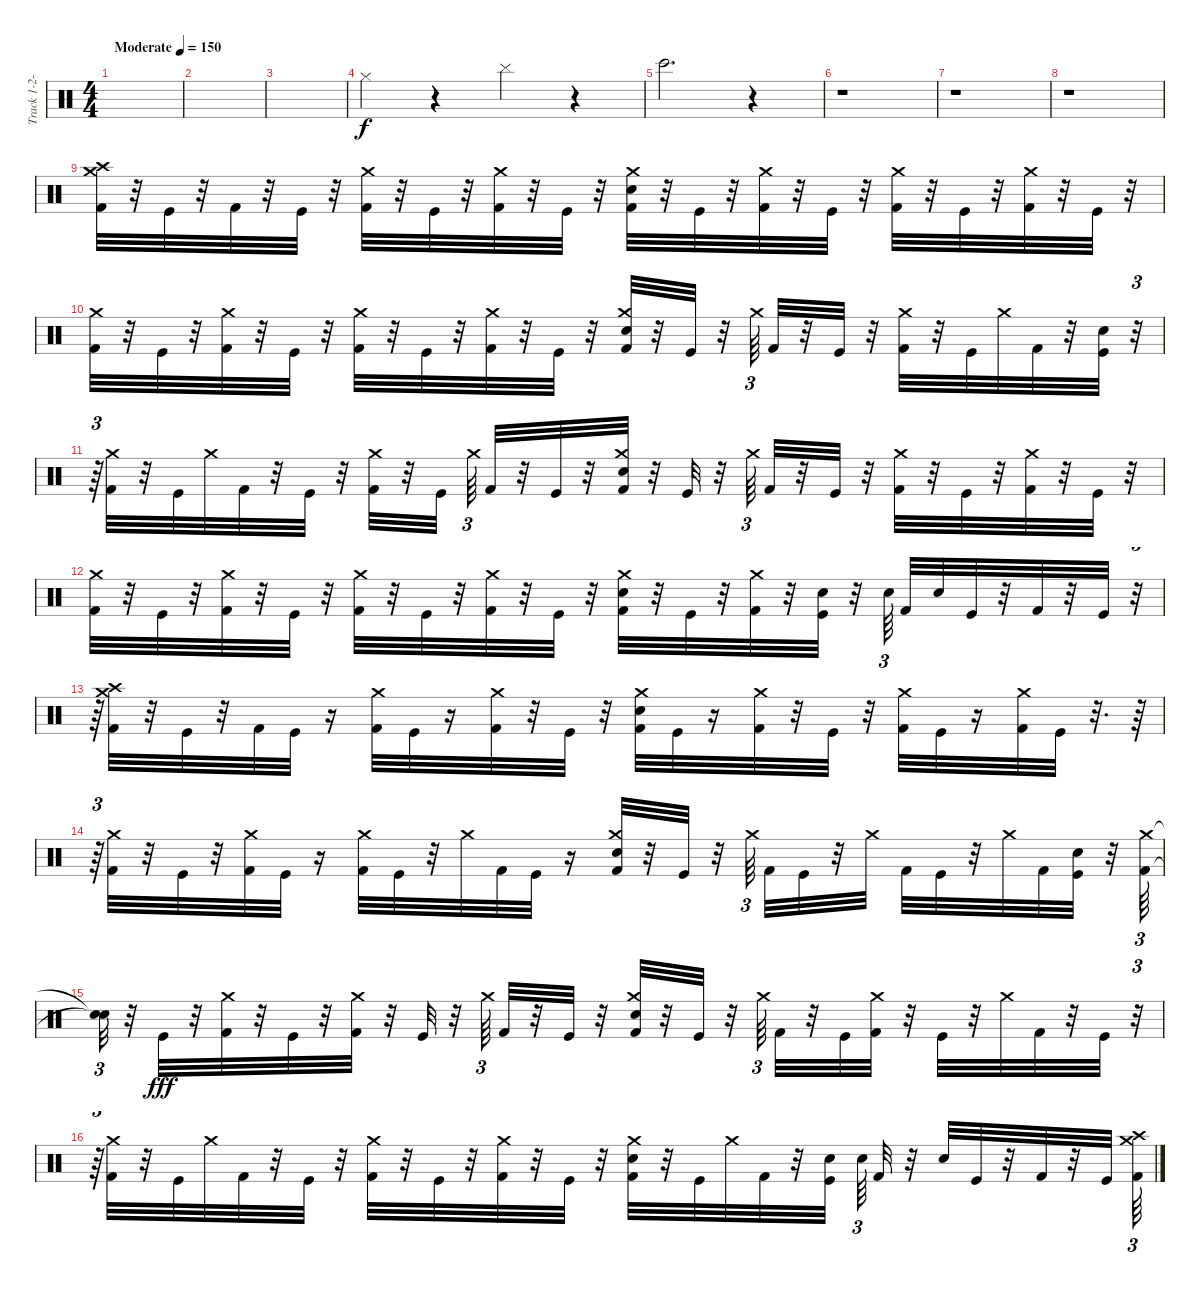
\track ("Track 1-2-3-4-5-6-7-8-9-10-11-12-13-14-1" "Track 1-2-") {instrument percussion}
\staff {score}
\articulation defaults
\ts (4 4)
\tempo (150 "Moderate")
\clef neutral
\ks c
|
|
|
"Hi-Hat (closed)".4 r.4 "Cymbal (hit)".4 r.4 |
"Bongo High (hit)".2{d} r.4 |
r.1 |
r.1 |
r.1 |
("Crash high (hit)" "Kick (hit) 2" "Crash medium (hit)").32 r.32 "Kick (hit)".32 r.32 "Kick (hit) 2".32 r.32 "Kick (hit)".32 r.32 ("Kick (hit) 2" "Crash medium (hit)").32 r.32 "Kick (hit)".32 r.32 ("Kick (hit) 2" "Crash medium (hit)").32 r.32 "Kick (hit)".32 r.32 ("Kick (hit) 2" "Snare (hit) 2" "Crash medium (hit)").32 r.32 "Kick (hit)".32 r.32 ("Kick (hit) 2" "Crash medium (hit)").32 r.32 "Kick (hit)".32 r.32 ("Kick (hit) 2" "Crash medium (hit)").32 r.32 "Kick (hit)".32 r.32 ("Kick (hit) 2" "Crash medium (hit)").32 r.32 "Kick (hit)".32 r.32 |
("Crash medium (hit)" "Kick (hit) 2").32 r.32 "Kick (hit)".32 r.32 ("Crash medium (hit)" "Kick (hit) 2").32 r.32 "Kick (hit)".32 r.32 ("Crash medium (hit)" "Kick (hit) 2").32 r.32 "Kick (hit)".32 r.32 ("Crash medium (hit)" "Kick (hit) 2").32 r.32 "Kick (hit)".32 r.32 ("Crash medium (hit)" "Kick (hit) 2" "Snare (hit) 2").32 r.32 "Kick (hit)".32 r.32 "Crash medium (hit)".64{tu (3 2)} "Kick (hit) 2".32 r.32 "Kick (hit)".32 r.32 ("Crash medium (hit)" "Kick (hit) 2").32 r.32 "Kick (hit)".32 "Crash medium (hit)".32 "Kick (hit) 2".32 r.32 ("Kick (hit)" "Snare (hit)").32 r.32{tu (3 2)} |
r.64{tu (3 2)} ("Crash medium (hit)" "Kick (hit) 2").32 r.32 "Kick (hit)".32 "Crash medium (hit)".32 "Kick (hit) 2".32 r.32 "Kick (hit)".32 r.32 ("Crash medium (hit)" "Kick (hit) 2").32 r.32 "Kick (hit)".32{beam splitsecondary} "Crash medium (hit)".64{tu (3 2)} "Kick (hit) 2".32 r.32 "Kick (hit)".32 r.32 ("Crash medium (hit)" "Snare (hit) 2" "Kick (hit) 2").32 r.32 "Kick (hit)".32 r.32 "Crash medium (hit)".64{tu (3 2)} "Kick (hit) 2".32 r.32 "Kick (hit)".32 r.32 ("Crash medium (hit)" "Kick (hit) 2").32 r.32 "Kick (hit)".32 r.32 ("Crash medium (hit)" "Kick (hit) 2").32 r.32 "Kick (hit)".32 r.32 |
("Crash medium (hit)" "Kick (hit) 2").32 r.32 "Kick (hit)".32 r.32 ("Crash medium (hit)" "Kick (hit) 2").32 r.32 "Kick (hit)".32 r.32 ("Crash medium (hit)" "Kick (hit) 2").32 r.32 "Kick (hit)".32 r.32 ("Crash medium (hit)" "Kick (hit) 2").32 r.32 "Kick (hit)".32 r.32 ("Crash medium (hit)" "Snare (hit) 2" "Kick (hit) 2").32 r.32 "Kick (hit)".32 r.32 ("Crash medium (hit)" "Kick (hit) 2").32 r.32 ("Kick (hit)" "Snare (hit) 2").32 r.32 "Snare (hit) 2".64{tu (3 2) beam splitsecondary} "Kick (hit) 2".32 "Snare (hit) 2".32 "Kick (hit)".32 r.32 "Kick (hit) 2".32 r.32 "Kick (hit)".32 r.32{tu (3 2)} |
r.64{tu (3 2)} ("Crash high (hit)" "Kick (hit) 2" "Crash medium (hit)").32 r.32 "Kick (hit)".32 r.32 "Kick (hit) 2".32 "Kick (hit)".32 r.16 ("Kick (hit) 2" "Crash medium (hit)").32 "Kick (hit)".32 r.16 ("Kick (hit) 2" "Crash medium (hit)").32 r.32 "Kick (hit)".32 r.32 ("Kick (hit) 2" "Snare (hit) 2" "Crash medium (hit)").32 "Kick (hit)".32 r.16 ("Kick (hit) 2" "Crash medium (hit)").32 r.32 "Kick (hit)".32 r.32 ("Kick (hit) 2" "Crash medium (hit)").32 "Kick (hit)".32 r.16 ("Kick (hit) 2" "Crash medium (hit)").32 "Kick (hit)".32 r.32{d} r.64 |
r.64{tu (3 2)} ("Crash medium (hit)" "Kick (hit) 2").32 r.32 "Kick (hit)".32 r.32 ("Crash medium (hit)" "Kick (hit) 2").32 "Kick (hit)".32 r.16 ("Crash medium (hit)" "Kick (hit) 2").32 "Kick (hit)".32 r.32 "Crash medium (hit)".32 "Kick (hit) 2".32 "Kick (hit)".32 r.16 ("Crash medium (hit)" "Kick (hit) 2" "Snare (hit) 2").32 r.32 "Kick (hit)".32 r.32 "Crash medium (hit)".64{tu (3 2) beam splitsecondary} "Kick (hit) 2".32 "Kick (hit)".32 r.32 "Crash medium (hit)".32 "Kick (hit) 2".32 "Kick (hit)".32 r.32 "Crash medium (hit)".32 "Kick (hit) 2".32 ("Kick (hit)" "Snare (hit)").32 r.32 ("Crash medium (hit)" "Kick (hit) 2").64{tu (3 2)} |
("Snare (hit)"{t} "Snare (hit)"{t}).32{tu (3 2) dy f} r.32 "Kick (hit)".32{dy fff} r.32 ("Crash medium (hit)" "Kick (hit) 2").32 r.32 "Kick (hit)".32 r.32 ("Crash medium (hit)" "Kick (hit) 2").32 r.32 "Kick (hit)".32 r.32 "Crash medium (hit)".64{tu (3 2)} "Kick (hit) 2".32 r.32 "Kick (hit)".32 r.32 ("Crash medium (hit)" "Snare (hit) 2" "Kick (hit) 2").32 r.32 "Kick (hit)".32 r.32 "Crash medium (hit)".64{tu (3 2)} "Kick (hit) 2".32 r.32 "Kick (hit)".32 ("Crash medium (hit)" "Kick (hit) 2").32 r.32 "Kick (hit)".32 r.32 "Crash medium (hit)".32 "Kick (hit) 2".32 r.32 "Kick (hit)".32 r.32{tu (3 2)} |
r.64{tu (3 2)} ("Crash medium (hit)" "Kick (hit) 2").32 r.32 "Kick (hit)".32 "Crash medium (hit)".32 "Kick (hit) 2".32 r.32 "Kick (hit)".32 r.32 ("Crash medium (hit)" "Kick (hit) 2").32 r.32 "Kick (hit)".32 r.32 ("Crash medium (hit)" "Kick (hit) 2").32 r.32 "Kick (hit)".32 r.32 ("Crash medium (hit)" "Snare (hit) 2" "Kick (hit) 2").32 r.32 "Kick (hit)".32 "Crash medium (hit)".32 "Kick (hit) 2".32 r.32 ("Kick (hit)" "Snare (hit) 2").32{beam splitsecondary} "Snare (hit) 2".64{tu (3 2)} "Kick (hit) 2".32 r.32 "Snare (hit) 2".32 "Kick (hit)".32 r.32 "Kick (hit) 2".32 r.32 "Kick (hit)".32 ("Crash high (hit)" "Kick (hit) 2" "Crash medium (hit)").64{tu (3 2)}
